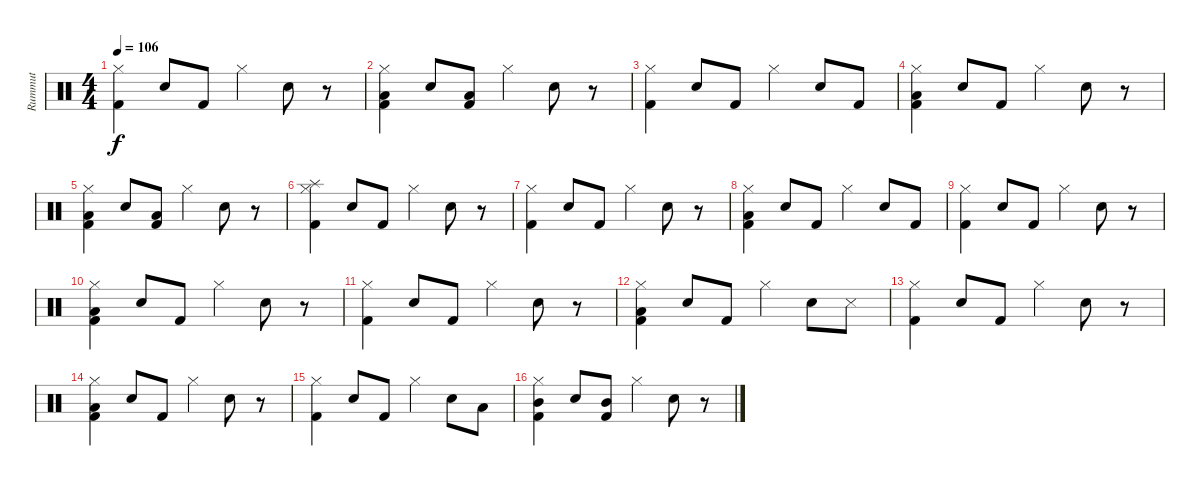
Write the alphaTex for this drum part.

\track ("Rummut" "Rummut") {instrument percussion}
\staff {score}
\articulation defaults
\ts (4 4)
\tempo 106
\clef neutral
\ks c
("Hi-Hat (closed)" "Kick (hit) 2").4{dy f} "Electric Snare (hit)".8 "Kick (hit) 2".8 "Hi-Hat (closed)".4 "Electric Snare (hit)".8 r.8 |
("Hi-Hat (closed)" "Low Tom (hit)" "Kick (hit) 2").4 "Electric Snare (hit)".8 ("Low Tom (hit)" "Kick (hit) 2").8 "Hi-Hat (closed)".4 "Electric Snare (hit)".8 r.8 |
("Hi-Hat (closed)" "Kick (hit) 2").4 "Electric Snare (hit)".8 "Kick (hit) 2".8 "Hi-Hat (closed)".4 "Electric Snare (hit)".8 "Kick (hit) 2".8 |
("Hi-Hat (closed)" "Low Tom (hit)" "Kick (hit) 2").4 "Electric Snare (hit)".8 "Kick (hit) 2".8 "Hi-Hat (closed)".4 "Electric Snare (hit)".8 r.8 |
("Hi-Hat (closed)" "Low Tom (hit)" "Kick (hit) 2").4 "Electric Snare (hit)".8 ("Low Tom (hit)" "Kick (hit) 2").8 "Hi-Hat (closed)".4 "Electric Snare (hit)".8 r.8 |
("Splash (hit)" "Hi-Hat (closed)" "Kick (hit) 2").4 "Electric Snare (hit)".8 "Kick (hit) 2".8 "Hi-Hat (closed)".4 "Electric Snare (hit)".8 r.8 |
("Hi-Hat (closed)" "Kick (hit) 2").4 "Electric Snare (hit)".8 "Kick (hit) 2".8 "Hi-Hat (closed)".4 "Electric Snare (hit)".8 r.8 |
("Hi-Hat (closed)" "Low Tom (hit)" "Kick (hit) 2").4 "Electric Snare (hit)".8 "Kick (hit) 2".8 "Hi-Hat (closed)".4 "Electric Snare (hit)".8 "Kick (hit) 2".8 |
("Hi-Hat (closed)" "Kick (hit) 2").4 "Electric Snare (hit)".8 "Kick (hit) 2".8 "Hi-Hat (closed)".4 "Electric Snare (hit)".8 r.8 |
("Hi-Hat (closed)" "Low Tom (hit)" "Kick (hit) 2").4 "Electric Snare (hit)".8 "Kick (hit) 2".8 "Hi-Hat (closed)".4 "Electric Snare (hit)".8 r.8 |
("Hi-Hat (closed)" "Kick (hit) 2").4 "Electric Snare (hit)".8 "Kick (hit) 2".8 "Hi-Hat (closed)".4 "Electric Snare (hit)".8 r.8 |
("Hi-Hat (closed)" "Low Tom (hit)" "Kick (hit) 2").4 "Electric Snare (hit)".8 "Kick (hit) 2".8 "Hi-Hat (closed)".4 "Electric Snare (hit)".8 "Snare (side stick) 3".8 |
("Hi-Hat (closed)" "Kick (hit) 2").4 "Electric Snare (hit)".8 "Kick (hit) 2".8 "Hi-Hat (closed)".4 "Electric Snare (hit)".8 r.8 |
("Hi-Hat (closed)" "Low Tom (hit)" "Kick (hit) 2").4 "Electric Snare (hit)".8 "Kick (hit) 2".8 "Hi-Hat (closed)".4 "Electric Snare (hit)".8 r.8 |
("Hi-Hat (closed)" "Kick (hit) 2").4 "Electric Snare (hit)".8 "Kick (hit) 2".8 "Hi-Hat (closed)".4 "Electric Snare (hit)".8 "Low Tom (hit)".8 |
("Hi-Hat (closed)" "Mid Tom (hit)" "Kick (hit) 2").4 "Electric Snare (hit)".8 ("Mid Tom (hit)" "Kick (hit) 2").8 "Hi-Hat (closed)".4 "Electric Snare (hit)".8 r.8
